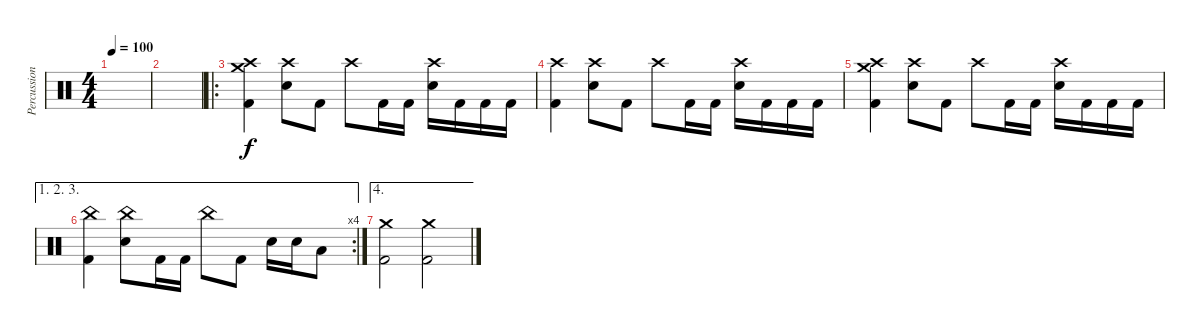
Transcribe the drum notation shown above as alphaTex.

\track ("Percussion" "Percussion") {instrument percussion}
\staff {score}
\articulation defaults
\ts (4 4)
\tempo 100
\clef neutral
\ks c
|
|
\ro
("Crash medium (hit)" "Crash high (hit)" "Kick (hit) 2").4 ("Crash high (hit)" "Electric Snare (hit)").8 "Kick (hit) 2".8 "Crash high (hit)".8 "Kick (hit) 2".16 "Kick (hit) 2".16 ("Crash high (hit)" "Electric Snare (hit)").16 "Kick (hit) 2".16 "Kick (hit) 2".16 "Kick (hit) 2".16 |
("Crash high (hit)" "Kick (hit) 2").4 ("Crash high (hit)" "Electric Snare (hit)").8 "Kick (hit) 2".8 "Crash high (hit)".8 "Kick (hit) 2".16 "Kick (hit) 2".16 ("Crash high (hit)" "Electric Snare (hit)").16 "Kick (hit) 2".16 "Kick (hit) 2".16 "Kick (hit) 2".16 |
("Crash medium (hit)" "Crash high (hit)" "Kick (hit) 2").4 ("Crash high (hit)" "Electric Snare (hit)").8 "Kick (hit) 2".8 "Crash high (hit)".8 "Kick (hit) 2".16 "Kick (hit) 2".16 ("Crash high (hit)" "Electric Snare (hit)").16 "Kick (hit) 2".16 "Kick (hit) 2".16 "Kick (hit) 2".16 |
\ae (1 2 3)
\rc 4
("China (hit)" "Kick (hit) 2").4 ("China (hit)" "Electric Snare (hit)").8 "Kick (hit) 2".16 "Kick (hit) 2".16 "China (hit)".8 "Kick (hit) 2".8 "Electric Snare (hit)".16 "Electric Snare (hit)".16 "Low Floor Tom (hit)".8 |
\ae 4
("Crash medium (hit)" "Kick (hit) 2").2 ("Crash medium (hit)" "Kick (hit) 2").2
